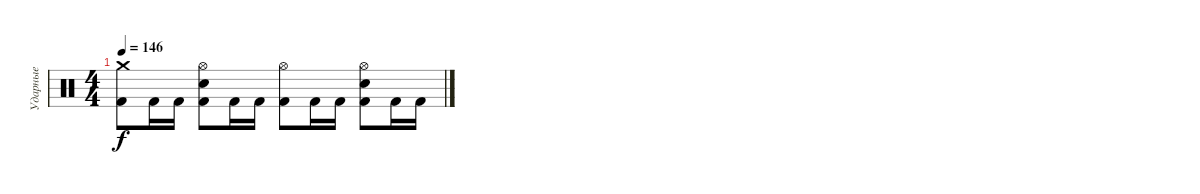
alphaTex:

\track ("Ударные" "Ударные") {instrument percussion}
\staff {score}
\articulation defaults
\ts (4 4)
\tempo 146
\clef neutral
\ks c
("Kick (hit) 2" "Crash medium (hit)").8{dy f} "Kick (hit) 2".16 "Kick (hit) 2".16 ("Kick (hit) 2" "Snare (hit) 2" "Hi-Hat (open)").8 "Kick (hit) 2".16 "Kick (hit) 2".16 ("Kick (hit) 2" "Hi-Hat (open)").8 "Kick (hit) 2".16 "Kick (hit) 2".16 ("Kick (hit) 2" "Snare (hit) 2" "Hi-Hat (open)").8 "Kick (hit) 2".16 "Kick (hit) 2".16
